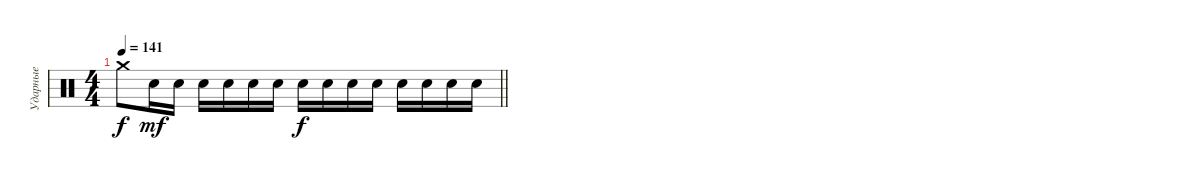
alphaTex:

\track ("Ударные" "Ударные") {instrument percussion}
\staff {score}
\articulation defaults
\ts (4 4)
\tempo 141
\clef neutral
\barLineRight lightlight
\ks c "Crash medium (hit)".8{dy f} "Snare (hit) 2".16{dy mf} "Snare (hit) 2".16 "Snare (hit) 2".16 "Snare (hit) 2".16 "Snare (hit) 2".16 "Snare (hit) 2".16 "Snare (hit) 2".16{dy f} "Snare (hit) 2".16 "Snare (hit) 2".16 "Snare (hit) 2".16 "Snare (hit) 2".16 "Snare (hit) 2".16 "Snare (hit) 2".16 "Snare (hit) 2".16
